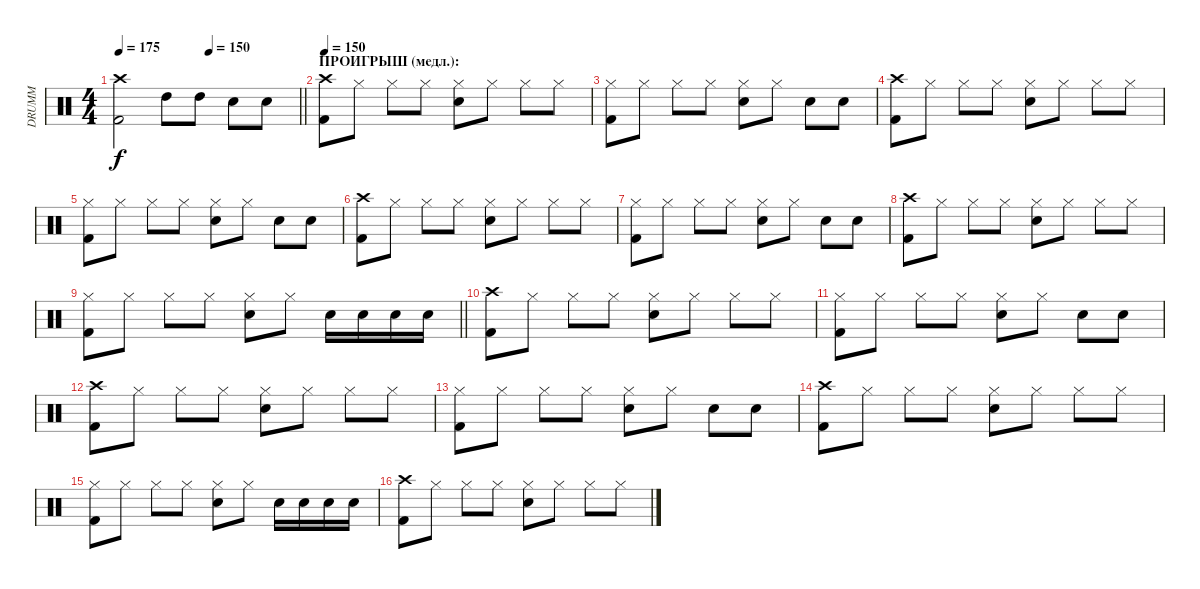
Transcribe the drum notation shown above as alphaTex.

\track ("DRUMM" "DRUMM") {instrument percussion}
\staff {score}
\articulation defaults
\ts (4 4)
\tempo 175
\tempo (150 0.5)
\clef neutral
\barLineRight lightlight
\ks c
("Crash high (hit)" "Kick (hit) 2").2{dy f} "High Tom (hit)".8 "High Tom (hit)".8 "Electric Snare (hit)".8 "Electric Snare (hit)".8 |
\section ("" "ПРОИГРЫШ (медл.): ")
\tempo 150
("Crash high (hit)" "Kick (hit) 2").8 "Hi-Hat (closed)".8 "Hi-Hat (closed)".8 "Hi-Hat (closed)".8 ("Hi-Hat (closed)" "Electric Snare (hit)").8 "Hi-Hat (closed)".8 "Hi-Hat (closed)".8 "Hi-Hat (closed)".8 |
("Hi-Hat (closed)" "Kick (hit) 2").8 "Hi-Hat (closed)".8 "Hi-Hat (closed)".8 "Hi-Hat (closed)".8 ("Hi-Hat (closed)" "Electric Snare (hit)").8 "Hi-Hat (closed)".8 "Electric Snare (hit)".8 "Electric Snare (hit)".8 |
("Crash high (hit)" "Kick (hit) 2").8 "Hi-Hat (closed)".8 "Hi-Hat (closed)".8 "Hi-Hat (closed)".8 ("Hi-Hat (closed)" "Electric Snare (hit)").8 "Hi-Hat (closed)".8 "Hi-Hat (closed)".8 "Hi-Hat (closed)".8 |
("Hi-Hat (closed)" "Kick (hit) 2").8 "Hi-Hat (closed)".8 "Hi-Hat (closed)".8 "Hi-Hat (closed)".8 ("Hi-Hat (closed)" "Electric Snare (hit)").8 "Hi-Hat (closed)".8 "Electric Snare (hit)".8 "Electric Snare (hit)".8 |
("Crash high (hit)" "Kick (hit) 2").8 "Hi-Hat (closed)".8 "Hi-Hat (closed)".8 "Hi-Hat (closed)".8 ("Hi-Hat (closed)" "Electric Snare (hit)").8 "Hi-Hat (closed)".8 "Hi-Hat (closed)".8 "Hi-Hat (closed)".8 |
("Hi-Hat (closed)" "Kick (hit) 2").8 "Hi-Hat (closed)".8 "Hi-Hat (closed)".8 "Hi-Hat (closed)".8 ("Hi-Hat (closed)" "Electric Snare (hit)").8 "Hi-Hat (closed)".8 "Electric Snare (hit)".8 "Electric Snare (hit)".8 |
("Crash high (hit)" "Kick (hit) 2").8 "Hi-Hat (closed)".8 "Hi-Hat (closed)".8 "Hi-Hat (closed)".8 ("Hi-Hat (closed)" "Electric Snare (hit)").8 "Hi-Hat (closed)".8 "Hi-Hat (closed)".8 "Hi-Hat (closed)".8 |
\barLineRight lightlight
("Hi-Hat (closed)" "Kick (hit) 2").8 "Hi-Hat (closed)".8 "Hi-Hat (closed)".8 "Hi-Hat (closed)".8 ("Hi-Hat (closed)" "Electric Snare (hit)").8 "Hi-Hat (closed)".8 "Electric Snare (hit)".16 "Electric Snare (hit)".16 "Electric Snare (hit)".16 "Electric Snare (hit)".16 |
("Crash high (hit)" "Kick (hit) 2").8 "Hi-Hat (closed)".8 "Hi-Hat (closed)".8 "Hi-Hat (closed)".8 ("Hi-Hat (closed)" "Electric Snare (hit)").8 "Hi-Hat (closed)".8 "Hi-Hat (closed)".8 "Hi-Hat (closed)".8 |
("Hi-Hat (closed)" "Kick (hit) 2").8 "Hi-Hat (closed)".8 "Hi-Hat (closed)".8 "Hi-Hat (closed)".8 ("Hi-Hat (closed)" "Electric Snare (hit)").8 "Hi-Hat (closed)".8 "Electric Snare (hit)".8 "Electric Snare (hit)".8 |
("Crash high (hit)" "Kick (hit) 2").8 "Hi-Hat (closed)".8 "Hi-Hat (closed)".8 "Hi-Hat (closed)".8 ("Hi-Hat (closed)" "Electric Snare (hit)").8 "Hi-Hat (closed)".8 "Hi-Hat (closed)".8 "Hi-Hat (closed)".8 |
("Hi-Hat (closed)" "Kick (hit) 2").8 "Hi-Hat (closed)".8 "Hi-Hat (closed)".8 "Hi-Hat (closed)".8 ("Hi-Hat (closed)" "Electric Snare (hit)").8 "Hi-Hat (closed)".8 "Electric Snare (hit)".8 "Electric Snare (hit)".8 |
("Crash high (hit)" "Kick (hit) 2").8 "Hi-Hat (closed)".8 "Hi-Hat (closed)".8 "Hi-Hat (closed)".8 ("Hi-Hat (closed)" "Electric Snare (hit)").8 "Hi-Hat (closed)".8 "Hi-Hat (closed)".8 "Hi-Hat (closed)".8 |
("Hi-Hat (closed)" "Kick (hit) 2").8 "Hi-Hat (closed)".8 "Hi-Hat (closed)".8 "Hi-Hat (closed)".8 ("Hi-Hat (closed)" "Electric Snare (hit)").8 "Hi-Hat (closed)".8 "Electric Snare (hit)".16 "Electric Snare (hit)".16 "Electric Snare (hit)".16 "Electric Snare (hit)".16 |
("Crash high (hit)" "Kick (hit) 2").8 "Hi-Hat (closed)".8 "Hi-Hat (closed)".8 "Hi-Hat (closed)".8 ("Hi-Hat (closed)" "Electric Snare (hit)").8 "Hi-Hat (closed)".8 "Hi-Hat (closed)".8 "Hi-Hat (closed)".8
